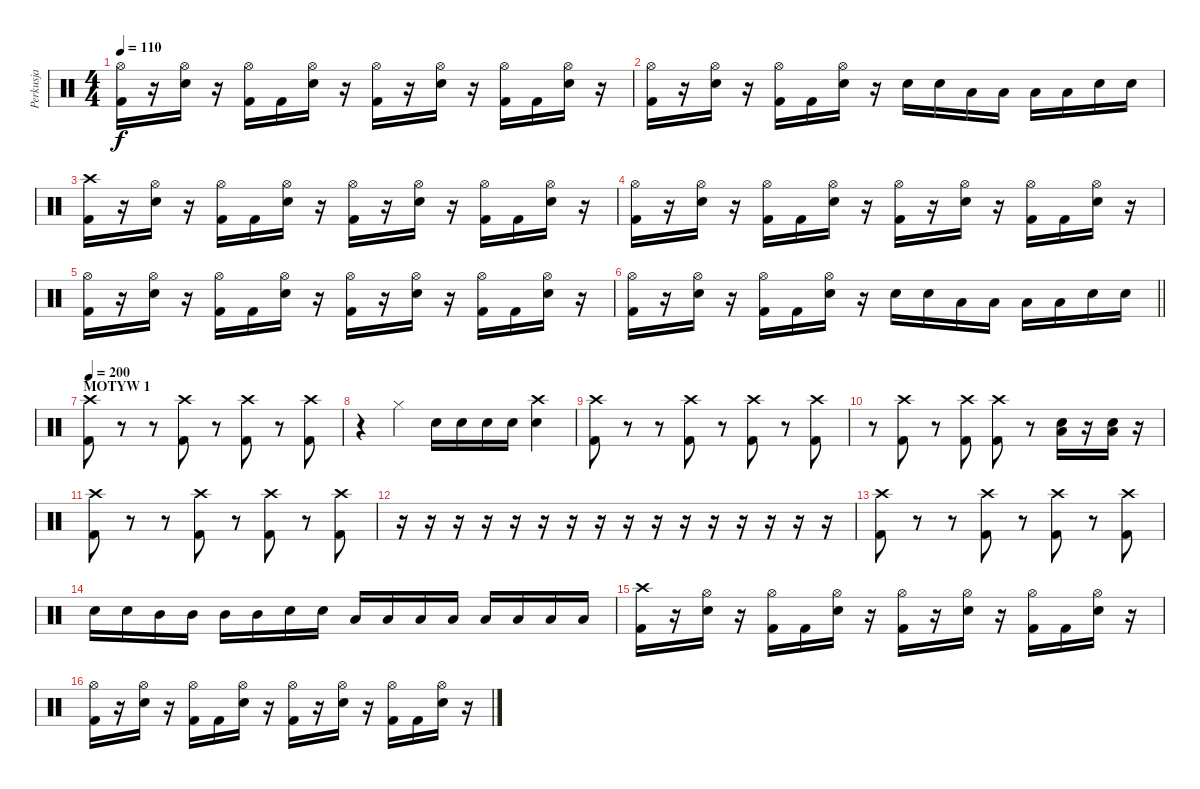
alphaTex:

\track ("Perkusja" "Perkusja") {instrument percussion}
\staff {score}
\articulation defaults
\ts (4 4)
\tempo 110
\clef neutral
\ks c
("Hi-Hat (open)" "Kick (hit) 2").16{dy f} r.16 ("Hi-Hat (open)" "Snare (hit) 2").16 r.16 ("Hi-Hat (open)" "Kick (hit) 2").16 "Kick (hit) 2".16 ("Hi-Hat (open)" "Snare (hit) 2").16 r.16 ("Hi-Hat (open)" "Kick (hit) 2").16 r.16 ("Hi-Hat (open)" "Snare (hit) 2").16 r.16 ("Hi-Hat (open)" "Kick (hit) 2").16 "Kick (hit) 2".16 ("Hi-Hat (open)" "Snare (hit) 2").16 r.16 |
("Hi-Hat (open)" "Kick (hit) 2").16 r.16 ("Hi-Hat (open)" "Snare (hit) 2").16 r.16 ("Hi-Hat (open)" "Kick (hit) 2").16 "Kick (hit) 2".16 ("Hi-Hat (open)" "Snare (hit) 2").16 r.16 "Snare (hit) 2".16 "Snare (hit) 2".16 "Low Tom (hit)".16 "Low Tom (hit)".16 "Low Tom (hit)".16 "Low Tom (hit)".16 "Snare (hit) 2".16 "Snare (hit) 2".16 |
("Crash high (hit)" "Kick (hit) 2").16 r.16 ("Hi-Hat (open)" "Snare (hit) 2").16 r.16 ("Hi-Hat (open)" "Kick (hit) 2").16 "Kick (hit) 2".16 ("Hi-Hat (open)" "Snare (hit) 2").16 r.16 ("Hi-Hat (open)" "Kick (hit) 2").16 r.16 ("Hi-Hat (open)" "Snare (hit) 2").16 r.16 ("Hi-Hat (open)" "Kick (hit) 2").16 "Kick (hit) 2".16 ("Hi-Hat (open)" "Snare (hit) 2").16 r.16 |
("Hi-Hat (open)" "Kick (hit) 2").16 r.16 ("Hi-Hat (open)" "Snare (hit) 2").16 r.16 ("Hi-Hat (open)" "Kick (hit) 2").16 "Kick (hit) 2".16 ("Hi-Hat (open)" "Snare (hit) 2").16 r.16 ("Hi-Hat (open)" "Kick (hit) 2").16 r.16 ("Hi-Hat (open)" "Snare (hit) 2").16 r.16 ("Hi-Hat (open)" "Kick (hit) 2").16 "Kick (hit) 2".16 ("Hi-Hat (open)" "Snare (hit) 2").16 r.16 |
("Hi-Hat (open)" "Kick (hit) 2").16 r.16 ("Hi-Hat (open)" "Snare (hit) 2").16 r.16 ("Hi-Hat (open)" "Kick (hit) 2").16 "Kick (hit) 2".16 ("Hi-Hat (open)" "Snare (hit) 2").16 r.16 ("Hi-Hat (open)" "Kick (hit) 2").16 r.16 ("Hi-Hat (open)" "Snare (hit) 2").16 r.16 ("Hi-Hat (open)" "Kick (hit) 2").16 "Kick (hit) 2".16 ("Hi-Hat (open)" "Snare (hit) 2").16 r.16 |
\barLineRight lightlight
("Hi-Hat (open)" "Kick (hit) 2").16 r.16 ("Hi-Hat (open)" "Snare (hit) 2").16 r.16 ("Hi-Hat (open)" "Kick (hit) 2").16 "Kick (hit) 2".16 ("Hi-Hat (open)" "Snare (hit) 2").16 r.16 "Snare (hit) 2".16 "Snare (hit) 2".16 "Low Tom (hit)".16 "Low Tom (hit)".16 "Low Tom (hit)".16 "Low Tom (hit)".16 "Snare (hit) 2".16 "Snare (hit) 2".16 |
\section ("" "MOTYW 1")
\tempo 200
("Crash high (hit)" "Kick (hit) 2").8 r.8 r.8 ("Crash high (hit)" "Kick (hit) 2").8 r.8 ("Crash high (hit)" "Kick (hit) 2").8 r.8 ("Crash high (hit)" "Kick (hit) 2").8 |
r.4 "Hi-Hat (closed)".4 "Snare (hit) 2".16 "Snare (hit) 2".16 "Snare (hit) 2".16 "Snare (hit) 2".16 ("Crash high (hit)" "Snare (hit) 2").4 |
("Crash high (hit)" "Kick (hit) 2").8 r.8 r.8 ("Crash high (hit)" "Kick (hit) 2").8 r.8 ("Crash high (hit)" "Kick (hit) 2").8 r.8 ("Crash high (hit)" "Kick (hit) 2").8 |
r.8 ("Crash high (hit)" "Kick (hit) 2").8 r.8 ("Crash high (hit)" "Kick (hit) 2").8 ("Crash high (hit)" "Kick (hit) 2").8 r.8 ("Snare (hit) 2" "Low Floor Tom (hit)").16 r.16 ("Snare (hit) 2" "Low Floor Tom (hit)").16 r.16 |
("Crash high (hit)" "Kick (hit) 2").8 r.8 r.8 ("Crash high (hit)" "Kick (hit) 2").8 r.8 ("Crash high (hit)" "Kick (hit) 2").8 r.8 ("Crash high (hit)" "Kick (hit) 2").8 |
r.16 r.16 r.16 r.16 r.16 r.16 r.16 r.16 r.16 r.16 r.16 r.16 r.16 r.16 r.16 r.16 |
("Crash high (hit)" "Kick (hit) 2").8 r.8 r.8 ("Crash high (hit)" "Kick (hit) 2").8 r.8 ("Crash high (hit)" "Kick (hit) 2").8 r.8 ("Crash high (hit)" "Kick (hit) 2").8 |
"Snare (hit) 2".16 "Snare (hit) 2".16 "Mid Tom (hit)".16 "Mid Tom (hit)".16 "Mid Tom (hit)".16 "Mid Tom (hit)".16 "Snare (hit) 2".16 "Snare (hit) 2".16 "Low Tom (hit)".16 "Low Tom (hit)".16 "Low Tom (hit)".16 "Low Tom (hit)".16 "Low Floor Tom (hit)".16 "Low Floor Tom (hit)".16 "Low Floor Tom (hit)".16 "Low Floor Tom (hit)".16 |
("Crash high (hit)" "Kick (hit) 2").16 r.16 ("Hi-Hat (open)" "Snare (hit) 2").16 r.16 ("Hi-Hat (open)" "Kick (hit) 2").16 "Kick (hit) 2".16 ("Hi-Hat (open)" "Snare (hit) 2").16 r.16 ("Hi-Hat (open)" "Kick (hit) 2").16 r.16 ("Hi-Hat (open)" "Snare (hit) 2").16 r.16 ("Hi-Hat (open)" "Kick (hit) 2").16 "Kick (hit) 2".16 ("Hi-Hat (open)" "Snare (hit) 2").16 r.16 |
("Hi-Hat (open)" "Kick (hit) 2").16 r.16 ("Hi-Hat (open)" "Snare (hit) 2").16 r.16 ("Hi-Hat (open)" "Kick (hit) 2").16 "Kick (hit) 2".16 ("Hi-Hat (open)" "Snare (hit) 2").16 r.16 ("Hi-Hat (open)" "Kick (hit) 2").16 r.16 ("Hi-Hat (open)" "Snare (hit) 2").16 r.16 ("Hi-Hat (open)" "Kick (hit) 2").16 "Kick (hit) 2".16 ("Hi-Hat (open)" "Snare (hit) 2").16 r.16
